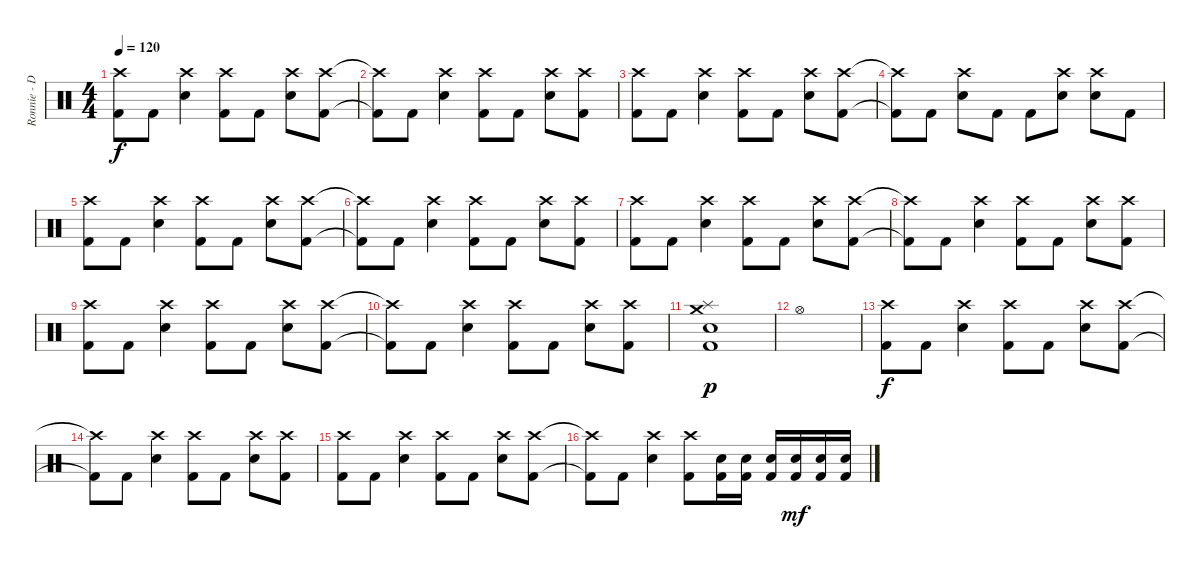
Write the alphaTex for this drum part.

\track ("Ronnie - Drums" "Ronnie - D") {instrument percussion}
\staff {score}
\articulation defaults
\ts (4 4)
\tempo 120
\clef neutral
\ks c
("Crash high (hit)" "Kick (hit) 2").8{dy f} "Kick (hit) 2".8 ("Crash high (hit)" "Snare (hit) 2").4 ("Crash high (hit)" "Kick (hit) 2").8 "Kick (hit) 2".8 ("Crash high (hit)" "Snare (hit) 2").8 ("Crash high (hit)" "Kick (hit) 2").8 |
("Crash high (hit)"{t} "Kick (hit) 2"{t}).8 "Kick (hit) 2".8 ("Crash high (hit)" "Snare (hit) 2").4 ("Crash high (hit)" "Kick (hit) 2").8 "Kick (hit) 2".8 ("Crash high (hit)" "Snare (hit) 2").8 ("Crash high (hit)" "Kick (hit) 2").8 |
("Crash high (hit)" "Kick (hit) 2").8 "Kick (hit) 2".8 ("Crash high (hit)" "Snare (hit) 2").4 ("Crash high (hit)" "Kick (hit) 2").8 "Kick (hit) 2".8 ("Crash high (hit)" "Snare (hit) 2").8 ("Crash high (hit)" "Kick (hit) 2").8 |
("Crash high (hit)"{t} "Kick (hit) 2"{t}).8 "Kick (hit) 2".8 ("Crash high (hit)" "Snare (hit) 2").8 "Kick (hit) 2".8 "Kick (hit) 2".8 ("Crash high (hit)" "Snare (hit) 2").8 ("Crash high (hit)" "Snare (hit) 2").8 "Kick (hit) 2".8 |
("Crash high (hit)" "Kick (hit) 2").8 "Kick (hit) 2".8 ("Crash high (hit)" "Snare (hit) 2").4 ("Crash high (hit)" "Kick (hit) 2").8 "Kick (hit) 2".8 ("Crash high (hit)" "Snare (hit) 2").8 ("Crash high (hit)" "Kick (hit) 2").8 |
("Crash high (hit)"{t} "Kick (hit) 2"{t}).8 "Kick (hit) 2".8 ("Crash high (hit)" "Snare (hit) 2").4 ("Crash high (hit)" "Kick (hit) 2").8 "Kick (hit) 2".8 ("Crash high (hit)" "Snare (hit) 2").8 ("Crash high (hit)" "Kick (hit) 2").8 |
("Crash high (hit)" "Kick (hit) 2").8 "Kick (hit) 2".8 ("Crash high (hit)" "Snare (hit) 2").4 ("Crash high (hit)" "Kick (hit) 2").8 "Kick (hit) 2".8 ("Crash high (hit)" "Snare (hit) 2").8 ("Crash high (hit)" "Kick (hit) 2").8 |
("Crash high (hit)"{t} "Kick (hit) 2"{t}).8 "Kick (hit) 2".8 ("Crash high (hit)" "Snare (hit) 2").4 ("Crash high (hit)" "Kick (hit) 2").8 "Kick (hit) 2".8 ("Crash high (hit)" "Snare (hit) 2").8 ("Crash high (hit)" "Kick (hit) 2").8 |
("Crash high (hit)" "Kick (hit) 2").8 "Kick (hit) 2".8 ("Crash high (hit)" "Snare (hit) 2").4 ("Crash high (hit)" "Kick (hit) 2").8 "Kick (hit) 2".8 ("Crash high (hit)" "Snare (hit) 2").8 ("Crash high (hit)" "Kick (hit) 2").8 |
("Crash high (hit)"{t} "Kick (hit) 2"{t}).8 "Kick (hit) 2".8 ("Crash high (hit)" "Snare (hit) 2").4 ("Crash high (hit)" "Kick (hit) 2").8 "Kick (hit) 2".8 ("Crash high (hit)" "Snare (hit) 2").8 ("Crash high (hit)" "Kick (hit) 2").8 |
("Crash medium (hit)" "Snare (hit) 2" "Kick (hit) 2" "Splash (hit)").1{dy p} |
"Hi-Hat (open)".1 |
("Crash high (hit)" "Kick (hit) 2").8{dy f} "Kick (hit) 2".8 ("Crash high (hit)" "Snare (hit) 2").4 ("Crash high (hit)" "Kick (hit) 2").8 "Kick (hit) 2".8 ("Crash high (hit)" "Snare (hit) 2").8 ("Crash high (hit)" "Kick (hit) 2").8 |
("Crash high (hit)"{t} "Kick (hit) 2"{t}).8 "Kick (hit) 2".8 ("Crash high (hit)" "Snare (hit) 2").4 ("Crash high (hit)" "Kick (hit) 2").8 "Kick (hit) 2".8 ("Crash high (hit)" "Snare (hit) 2").8 ("Crash high (hit)" "Kick (hit) 2").8 |
("Crash high (hit)" "Kick (hit) 2").8 "Kick (hit) 2".8 ("Crash high (hit)" "Snare (hit) 2").4 ("Crash high (hit)" "Kick (hit) 2").8 "Kick (hit) 2".8 ("Crash high (hit)" "Snare (hit) 2").8 ("Crash high (hit)" "Kick (hit) 2").8 |
("Crash high (hit)"{t} "Kick (hit) 2"{t}).8 "Kick (hit) 2".8 ("Crash high (hit)" "Snare (hit) 2").4 ("Crash high (hit)" "Kick (hit) 2").8 ("Kick (hit) 2" "Snare (hit) 2").16 ("Kick (hit) 2" "Snare (hit) 2").16 ("Kick (hit) 2" "Snare (hit) 2").16 ("Kick (hit) 2" "Snare (hit) 2").16{dy mf} ("Kick (hit) 2" "Snare (hit) 2").16 ("Kick (hit) 2" "Snare (hit) 2").16
